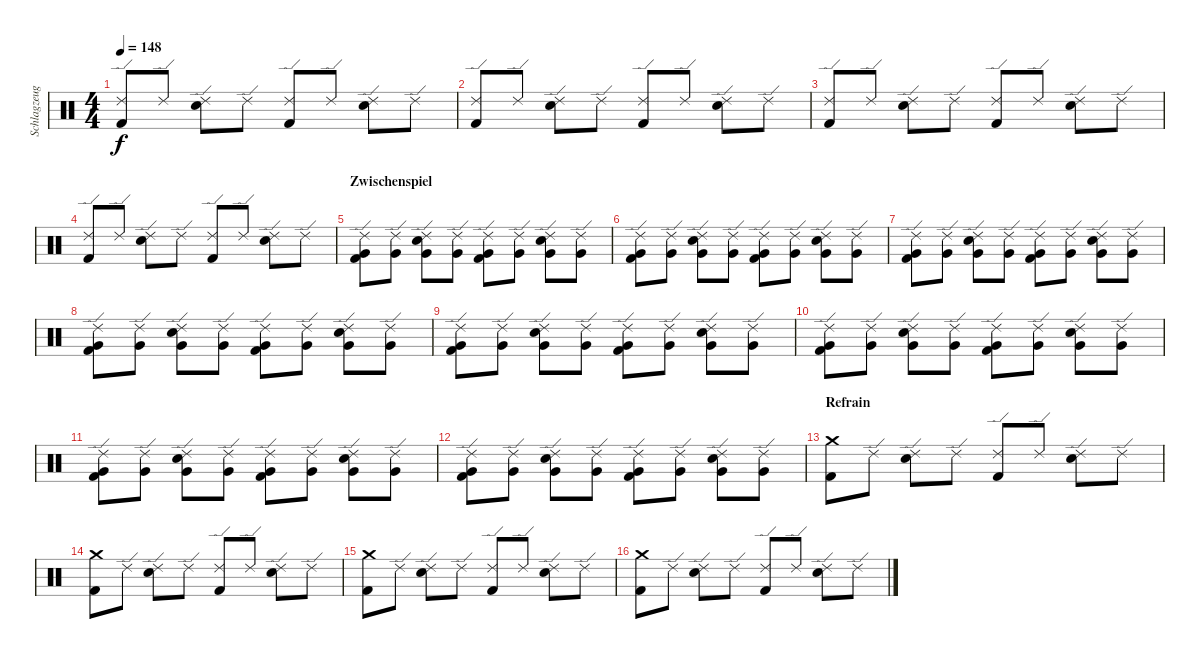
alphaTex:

\track ("Schlagzeug" "Schlagzeug") {instrument percussion}
\staff {score}
\articulation defaults
\ts (4 4)
\tempo 148
\clef neutral
\ks c
("Ride (edge) 2" "Kick (hit) 2").8{dy f} "Ride (edge) 2".8 ("Ride (edge) 2" "Snare (hit) 2").8 "Ride (edge) 2".8 ("Ride (edge) 2" "Kick (hit) 2").8 "Ride (edge) 2".8 ("Ride (edge) 2" "Snare (hit) 2").8 "Ride (edge) 2".8 |
("Ride (edge) 2" "Kick (hit) 2").8 "Ride (edge) 2".8 ("Ride (edge) 2" "Snare (hit) 2").8 "Ride (edge) 2".8 ("Ride (edge) 2" "Kick (hit) 2").8 "Ride (edge) 2".8 ("Ride (edge) 2" "Snare (hit) 2").8 "Ride (edge) 2".8 |
("Ride (edge) 2" "Kick (hit) 2").8 "Ride (edge) 2".8 ("Ride (edge) 2" "Snare (hit) 2").8 "Ride (edge) 2".8 ("Ride (edge) 2" "Kick (hit) 2").8 "Ride (edge) 2".8 ("Ride (edge) 2" "Snare (hit) 2").8 "Ride (edge) 2".8 |
("Ride (edge) 2" "Kick (hit) 2").8 "Ride (edge) 2".8 ("Ride (edge) 2" "Snare (hit) 2").8 "Ride (edge) 2".8 ("Ride (edge) 2" "Kick (hit) 2").8 "Ride (edge) 2".8 ("Ride (edge) 2" "Snare (hit) 2").8 "Ride (edge) 2".8 |
\section ("" "Zwischenspiel")
("Ride (edge) 2" "Very Low Tom (hit)" "Kick (hit) 2").8 ("Ride (edge) 2" "Very Low Tom (hit)").8 ("Ride (edge) 2" "Very Low Tom (hit)" "Snare (hit) 2").8 ("Ride (edge) 2" "Very Low Tom (hit)").8 ("Ride (edge) 2" "Very Low Tom (hit)" "Kick (hit) 2").8 ("Ride (edge) 2" "Very Low Tom (hit)").8 ("Ride (edge) 2" "Very Low Tom (hit)" "Snare (hit) 2").8 ("Ride (edge) 2" "Very Low Tom (hit)").8 |
("Ride (edge) 2" "Very Low Tom (hit)" "Kick (hit) 2").8 ("Ride (edge) 2" "Very Low Tom (hit)").8 ("Ride (edge) 2" "Very Low Tom (hit)" "Snare (hit) 2").8 ("Ride (edge) 2" "Very Low Tom (hit)").8 ("Ride (edge) 2" "Very Low Tom (hit)" "Kick (hit) 2").8 ("Ride (edge) 2" "Very Low Tom (hit)").8 ("Ride (edge) 2" "Very Low Tom (hit)" "Snare (hit) 2").8 ("Ride (edge) 2" "Very Low Tom (hit)").8 |
("Ride (edge) 2" "Very Low Tom (hit)" "Kick (hit) 2").8 ("Ride (edge) 2" "Very Low Tom (hit)").8 ("Ride (edge) 2" "Very Low Tom (hit)" "Snare (hit) 2").8 ("Ride (edge) 2" "Very Low Tom (hit)").8 ("Ride (edge) 2" "Very Low Tom (hit)" "Kick (hit) 2").8 ("Ride (edge) 2" "Very Low Tom (hit)").8 ("Ride (edge) 2" "Very Low Tom (hit)" "Snare (hit) 2").8 ("Ride (edge) 2" "Very Low Tom (hit)").8 |
("Ride (edge) 2" "Very Low Tom (hit)" "Kick (hit) 2").8 ("Ride (edge) 2" "Very Low Tom (hit)").8 ("Ride (edge) 2" "Very Low Tom (hit)" "Snare (hit) 2").8 ("Ride (edge) 2" "Very Low Tom (hit)").8 ("Ride (edge) 2" "Very Low Tom (hit)" "Kick (hit) 2").8 ("Ride (edge) 2" "Very Low Tom (hit)").8 ("Ride (edge) 2" "Very Low Tom (hit)" "Snare (hit) 2").8 ("Ride (edge) 2" "Very Low Tom (hit)").8 |
("Ride (edge) 2" "Very Low Tom (hit)" "Kick (hit) 2").8 ("Ride (edge) 2" "Very Low Tom (hit)").8 ("Ride (edge) 2" "Very Low Tom (hit)" "Snare (hit) 2").8 ("Ride (edge) 2" "Very Low Tom (hit)").8 ("Ride (edge) 2" "Very Low Tom (hit)" "Kick (hit) 2").8 ("Ride (edge) 2" "Very Low Tom (hit)").8 ("Ride (edge) 2" "Very Low Tom (hit)" "Snare (hit) 2").8 ("Ride (edge) 2" "Very Low Tom (hit)").8 |
("Ride (edge) 2" "Very Low Tom (hit)" "Kick (hit) 2").8 ("Ride (edge) 2" "Very Low Tom (hit)").8 ("Ride (edge) 2" "Very Low Tom (hit)" "Snare (hit) 2").8 ("Ride (edge) 2" "Very Low Tom (hit)").8 ("Ride (edge) 2" "Very Low Tom (hit)" "Kick (hit) 2").8 ("Ride (edge) 2" "Very Low Tom (hit)").8 ("Ride (edge) 2" "Very Low Tom (hit)" "Snare (hit) 2").8 ("Ride (edge) 2" "Very Low Tom (hit)").8 |
("Ride (edge) 2" "Very Low Tom (hit)" "Kick (hit) 2").8 ("Ride (edge) 2" "Very Low Tom (hit)").8 ("Ride (edge) 2" "Very Low Tom (hit)" "Snare (hit) 2").8 ("Ride (edge) 2" "Very Low Tom (hit)").8 ("Ride (edge) 2" "Very Low Tom (hit)" "Kick (hit) 2").8 ("Ride (edge) 2" "Very Low Tom (hit)").8 ("Ride (edge) 2" "Very Low Tom (hit)" "Snare (hit) 2").8 ("Ride (edge) 2" "Very Low Tom (hit)").8 |
("Ride (edge) 2" "Very Low Tom (hit)" "Kick (hit) 2").8 ("Ride (edge) 2" "Very Low Tom (hit)").8 ("Ride (edge) 2" "Very Low Tom (hit)" "Snare (hit) 2").8 ("Ride (edge) 2" "Very Low Tom (hit)").8 ("Ride (edge) 2" "Very Low Tom (hit)" "Kick (hit) 2").8 ("Ride (edge) 2" "Very Low Tom (hit)").8 ("Ride (edge) 2" "Very Low Tom (hit)" "Snare (hit) 2").8 ("Ride (edge) 2" "Very Low Tom (hit)").8 |
\section ("" "Refrain")
("Crash medium (hit)" "Kick (hit) 2").8 "Ride (edge) 2".8 ("Ride (edge) 2" "Snare (hit) 2").8 "Ride (edge) 2".8 ("Ride (edge) 2" "Kick (hit) 2").8 "Ride (edge) 2".8 ("Ride (edge) 2" "Snare (hit) 2").8 "Ride (edge) 2".8 |
("Crash medium (hit)" "Kick (hit) 2").8 "Ride (edge) 2".8 ("Ride (edge) 2" "Snare (hit) 2").8 "Ride (edge) 2".8 ("Ride (edge) 2" "Kick (hit) 2").8 "Ride (edge) 2".8 ("Ride (edge) 2" "Snare (hit) 2").8 "Ride (edge) 2".8 |
("Crash medium (hit)" "Kick (hit) 2").8 "Ride (edge) 2".8 ("Ride (edge) 2" "Snare (hit) 2").8 "Ride (edge) 2".8 ("Ride (edge) 2" "Kick (hit) 2").8 "Ride (edge) 2".8 ("Ride (edge) 2" "Snare (hit) 2").8 "Ride (edge) 2".8 |
("Crash medium (hit)" "Kick (hit) 2").8 "Ride (edge) 2".8 ("Ride (edge) 2" "Snare (hit) 2").8 "Ride (edge) 2".8 ("Ride (edge) 2" "Kick (hit) 2").8 "Ride (edge) 2".8 ("Ride (edge) 2" "Snare (hit) 2").8 "Ride (edge) 2".8
